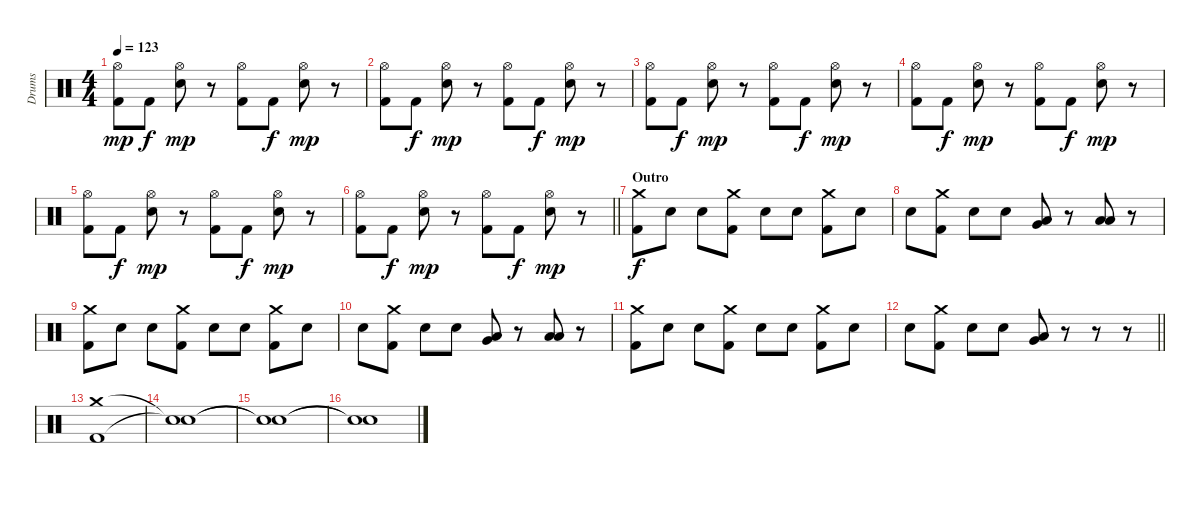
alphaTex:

\track ("Drums" "Drums") {instrument percussion}
\staff {score}
\articulation defaults
\ts (4 4)
\tempo 123
\clef neutral
\ks c
("Hi-Hat (open)" "Kick (hit) 2").8{dy mp} "Kick (hit) 2".8{dy f} ("Hi-Hat (open)" "Electric Snare (hit)").8{dy mp} r.8 ("Hi-Hat (open)" "Kick (hit) 2").8 "Kick (hit) 2".8{dy f} ("Hi-Hat (open)" "Electric Snare (hit)").8{dy mp} r.8 |
("Hi-Hat (open)" "Kick (hit) 2").8 "Kick (hit) 2".8{dy f} ("Hi-Hat (open)" "Electric Snare (hit)").8{dy mp} r.8 ("Hi-Hat (open)" "Kick (hit) 2").8 "Kick (hit) 2".8{dy f} ("Hi-Hat (open)" "Electric Snare (hit)").8{dy mp} r.8 |
("Hi-Hat (open)" "Kick (hit) 2").8 "Kick (hit) 2".8{dy f} ("Hi-Hat (open)" "Electric Snare (hit)").8{dy mp} r.8 ("Hi-Hat (open)" "Kick (hit) 2").8 "Kick (hit) 2".8{dy f} ("Hi-Hat (open)" "Electric Snare (hit)").8{dy mp} r.8 |
("Hi-Hat (open)" "Kick (hit) 2").8 "Kick (hit) 2".8{dy f} ("Hi-Hat (open)" "Electric Snare (hit)").8{dy mp} r.8 ("Hi-Hat (open)" "Kick (hit) 2").8 "Kick (hit) 2".8{dy f} ("Hi-Hat (open)" "Electric Snare (hit)").8{dy mp} r.8 |
("Hi-Hat (open)" "Kick (hit) 2").8 "Kick (hit) 2".8{dy f} ("Hi-Hat (open)" "Electric Snare (hit)").8{dy mp} r.8 ("Hi-Hat (open)" "Kick (hit) 2").8 "Kick (hit) 2".8{dy f} ("Hi-Hat (open)" "Electric Snare (hit)").8{dy mp} r.8 |
\barLineRight lightlight
("Hi-Hat (open)" "Kick (hit) 2").8 "Kick (hit) 2".8{dy f} ("Hi-Hat (open)" "Electric Snare (hit)").8{dy mp} r.8 ("Hi-Hat (open)" "Kick (hit) 2").8 "Kick (hit) 2".8{dy f} ("Hi-Hat (open)" "Electric Snare (hit)").8{dy mp} r.8 |
\section ("" "Outro")
("Crash medium (hit)" "Kick (hit) 2").8{dy f} "Snare (hit) 2".8 "Snare (hit) 2".8 ("Crash medium (hit)" "Kick (hit) 2").8 "Snare (hit) 2".8 "Snare (hit) 2".8 ("Crash medium (hit)" "Kick (hit) 2").8 "Snare (hit) 2".8 |
"Snare (hit) 2".8 ("Crash medium (hit)" "Kick (hit) 2").8 "Snare (hit) 2".8 "Snare (hit) 2".8 ("Very Low Tom (hit)" "Low Floor Tom (hit)").8 r.8 ("Low Tom (hit)" "Low Floor Tom (hit)").8 r.8 |
("Crash medium (hit)" "Kick (hit) 2").8 "Snare (hit) 2".8 "Snare (hit) 2".8 ("Crash medium (hit)" "Kick (hit) 2").8 "Snare (hit) 2".8 "Snare (hit) 2".8 ("Crash medium (hit)" "Kick (hit) 2").8 "Snare (hit) 2".8 |
"Snare (hit) 2".8 ("Crash medium (hit)" "Kick (hit) 2").8 "Snare (hit) 2".8 "Snare (hit) 2".8 ("Very Low Tom (hit)" "Low Floor Tom (hit)").8 r.8 ("Low Tom (hit)" "Low Floor Tom (hit)").8 r.8 |
("Crash medium (hit)" "Kick (hit) 2").8 "Snare (hit) 2".8 "Snare (hit) 2".8 ("Crash medium (hit)" "Kick (hit) 2").8 "Snare (hit) 2".8 "Snare (hit) 2".8 ("Crash medium (hit)" "Kick (hit) 2").8 "Snare (hit) 2".8 |
\barLineRight lightlight "Snare (hit) 2".8
("Crash medium (hit)" "Kick (hit) 2").8 "Snare (hit) 2".8 "Snare (hit) 2".8 ("Very Low Tom (hit)" "Low Floor Tom (hit)").8 r.8 r.8 r.8 |
("Crash medium (hit)" "Kick (hit) 2").1 |
("Snare (hit)"{t} "Snare (hit)"{t}).1 |
("Snare (hit)"{t} "Snare (hit)"{t}).1 |
("Snare (hit)"{t} "Snare (hit)"{t}).1
